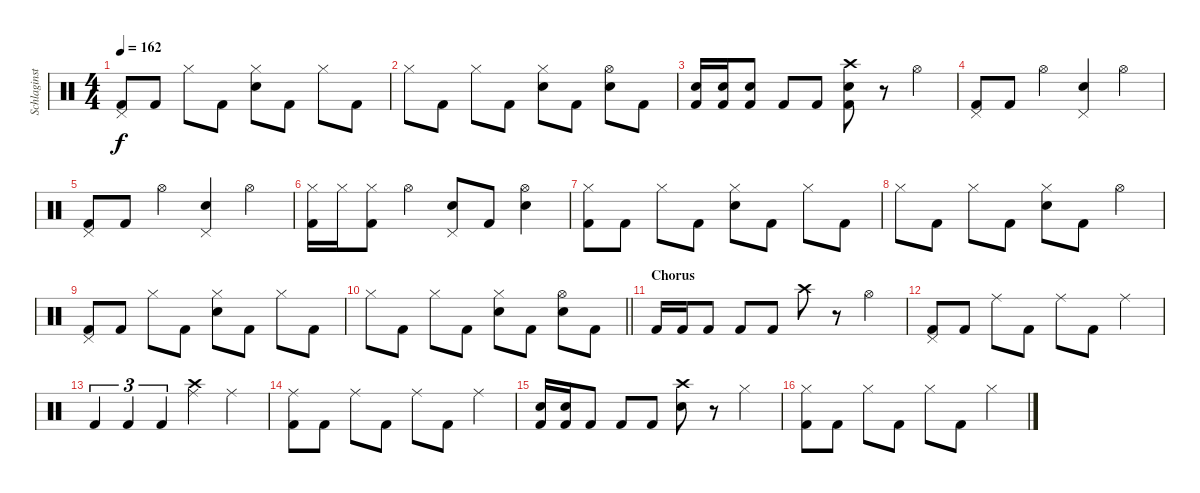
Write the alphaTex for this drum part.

\track ("Schlaginstrumente - Auswahl" "Schlaginst") {instrument percussion}
\staff {score}
\articulation defaults
\ts (4 4)
\tempo 162
\clef neutral
\ks c
("Pedal Hi-Hat (hit)" "Kick (hit) 2").8{dy f} "Kick (hit) 2".8 "Hi-Hat (closed)".8 "Kick (hit) 2".8 ("Hi-Hat (closed)" "Electric Snare (hit)").8 "Kick (hit) 2".8 "Hi-Hat (closed)".8 "Kick (hit) 2".8 |
"Hi-Hat (closed)".8 "Kick (hit) 2".8 "Hi-Hat (closed)".8 "Kick (hit) 2".8 ("Hi-Hat (closed)" "Electric Snare (hit)").8 "Kick (hit) 2".8 ("Hi-Hat (open)" "Electric Snare (hit)").8 "Kick (hit) 2".8 |
("Electric Snare (hit)" "Kick (hit) 2").16 ("Electric Snare (hit)" "Kick (hit) 2").16 ("Electric Snare (hit)" "Kick (hit) 2").8 "Kick (hit) 2".8 "Kick (hit) 2".8 ("Crash high (hit)" "Electric Snare (hit)" "Kick (hit) 2").8 r.8 "Hi-Hat (open)".4 |
("Pedal Hi-Hat (hit)" "Kick (hit) 2").8 "Kick (hit) 2".8 "Hi-Hat (open)".4 ("Pedal Hi-Hat (hit)" "Electric Snare (hit)").4 "Hi-Hat (open)".4 |
("Pedal Hi-Hat (hit)" "Kick (hit) 2").8 "Kick (hit) 2".8 "Hi-Hat (open)".4 ("Pedal Hi-Hat (hit)" "Electric Snare (hit)").4 "Hi-Hat (open)".4 |
("Hi-Hat (closed)" "Kick (hit) 2").16 "Hi-Hat (closed)".16 ("Hi-Hat (closed)" "Kick (hit) 2").8 "Hi-Hat (open)".4 ("Pedal Hi-Hat (hit)" "Electric Snare (hit)").8 "Kick (hit) 2".8 ("Hi-Hat (open)" "Electric Snare (hit)").4 |
("Hi-Hat (closed)" "Kick (hit) 2").8 "Kick (hit) 2".8 "Hi-Hat (closed)".8 "Kick (hit) 2".8 ("Hi-Hat (closed)" "Electric Snare (hit)").8 "Kick (hit) 2".8 "Hi-Hat (closed)".8 "Kick (hit) 2".8 |
"Hi-Hat (closed)".8 "Kick (hit) 2".8 "Hi-Hat (closed)".8 "Kick (hit) 2".8 ("Hi-Hat (closed)" "Electric Snare (hit)").8 "Kick (hit) 2".8 "Hi-Hat (open)".4 |
("Pedal Hi-Hat (hit)" "Kick (hit) 2").8 "Kick (hit) 2".8 "Hi-Hat (closed)".8 "Kick (hit) 2".8 ("Hi-Hat (closed)" "Electric Snare (hit)").8 "Kick (hit) 2".8 "Hi-Hat (closed)".8 "Kick (hit) 2".8 |
\barLineRight lightlight "Hi-Hat (closed)".8 "Kick (hit) 2".8 "Hi-Hat (closed)".8 "Kick (hit) 2".8
("Hi-Hat (closed)" "Electric Snare (hit)").8 "Kick (hit) 2".8 ("Hi-Hat (open)" "Electric Snare (hit)").8 "Kick (hit) 2".8 |
\section ("" "Chorus")
"Kick (hit) 2".16 "Kick (hit) 2".16 "Kick (hit) 2".8 "Kick (hit) 2".8 "Kick (hit) 2".8 "Crash high (hit)".8 r.8 "Hi-Hat (open)".4 |
("Pedal Hi-Hat (hit)" "Kick (hit) 2").8 "Kick (hit) 2".8 "Ride (middle)".8 "Kick (hit) 2".8 "Ride (middle)".8 "Kick (hit) 2".8 "Ride (middle)".4 |
"Kick (hit) 2".4{tu (3 2)} "Kick (hit) 2".4{tu (3 2)} "Kick (hit) 2".4{tu (3 2)} ("Crash high (hit)" "Ride (middle)").4 "Ride (middle)".4 |
("Ride (middle)" "Kick (hit) 2").8 "Kick (hit) 2".8 "Ride (middle)".8 "Kick (hit) 2".8 "Ride (middle)".8 "Kick (hit) 2".8 "Ride (middle)".4 |
("Electric Snare (hit)" "Kick (hit) 2").16 ("Electric Snare (hit)" "Kick (hit) 2").16 "Kick (hit) 2".8 "Kick (hit) 2".8 "Kick (hit) 2".8 ("Crash high (hit)" "Electric Snare (hit)").8 r.8 "Hi-Hat (closed)".4 |
("Hi-Hat (closed)" "Kick (hit) 2").8 "Kick (hit) 2".8 "Hi-Hat (closed)".8 "Kick (hit) 2".8 "Hi-Hat (closed)".8 "Kick (hit) 2".8 "Hi-Hat (closed)".4
